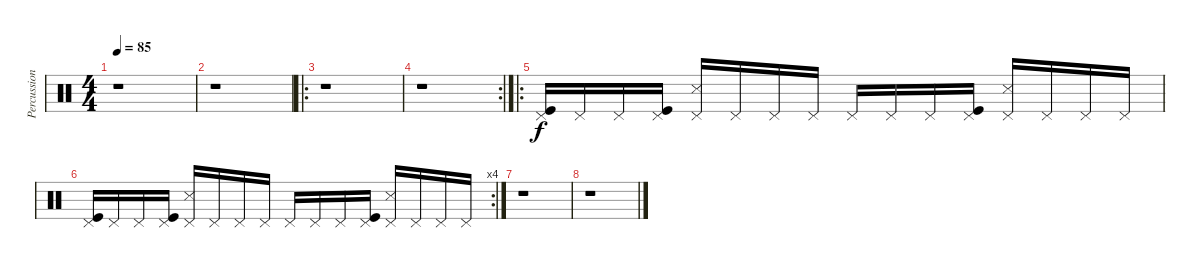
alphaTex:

\track ("Percussions" "Percussion") {instrument percussion}
\staff {score}
\articulation defaults
\ts (4 4)
\tempo 85
\clef neutral
\ks c
r.1{dy f} |
r.1 |
\ro
r.1 |
\rc 2
r.1 |
\ro
("Pedal Hi-Hat (hit)" "Kick (hit)").16 "Pedal Hi-Hat (hit)".16 "Pedal Hi-Hat (hit)".16 ("Pedal Hi-Hat (hit)" "Kick (hit)").16 ("Pedal Hi-Hat (hit)" "Snare (side stick) 3").16 "Pedal Hi-Hat (hit)".16 "Pedal Hi-Hat (hit)".16 "Pedal Hi-Hat (hit)".16 "Pedal Hi-Hat (hit)".16 "Pedal Hi-Hat (hit)".16 "Pedal Hi-Hat (hit)".16 ("Pedal Hi-Hat (hit)" "Kick (hit)").16 ("Pedal Hi-Hat (hit)" "Snare (side stick) 3").16 "Pedal Hi-Hat (hit)".16 "Pedal Hi-Hat (hit)".16 "Pedal Hi-Hat (hit)".16 |
\rc 4
("Pedal Hi-Hat (hit)" "Kick (hit)").16 "Pedal Hi-Hat (hit)".16 "Pedal Hi-Hat (hit)".16 ("Pedal Hi-Hat (hit)" "Kick (hit)").16 ("Pedal Hi-Hat (hit)" "Snare (side stick) 3").16 "Pedal Hi-Hat (hit)".16 "Pedal Hi-Hat (hit)".16 "Pedal Hi-Hat (hit)".16 "Pedal Hi-Hat (hit)".16 "Pedal Hi-Hat (hit)".16 "Pedal Hi-Hat (hit)".16 ("Pedal Hi-Hat (hit)" "Kick (hit)").16 ("Pedal Hi-Hat (hit)" "Snare (side stick) 3").16 "Pedal Hi-Hat (hit)".16 "Pedal Hi-Hat (hit)".16 "Pedal Hi-Hat (hit)".16 |
r.1 |
r.1
